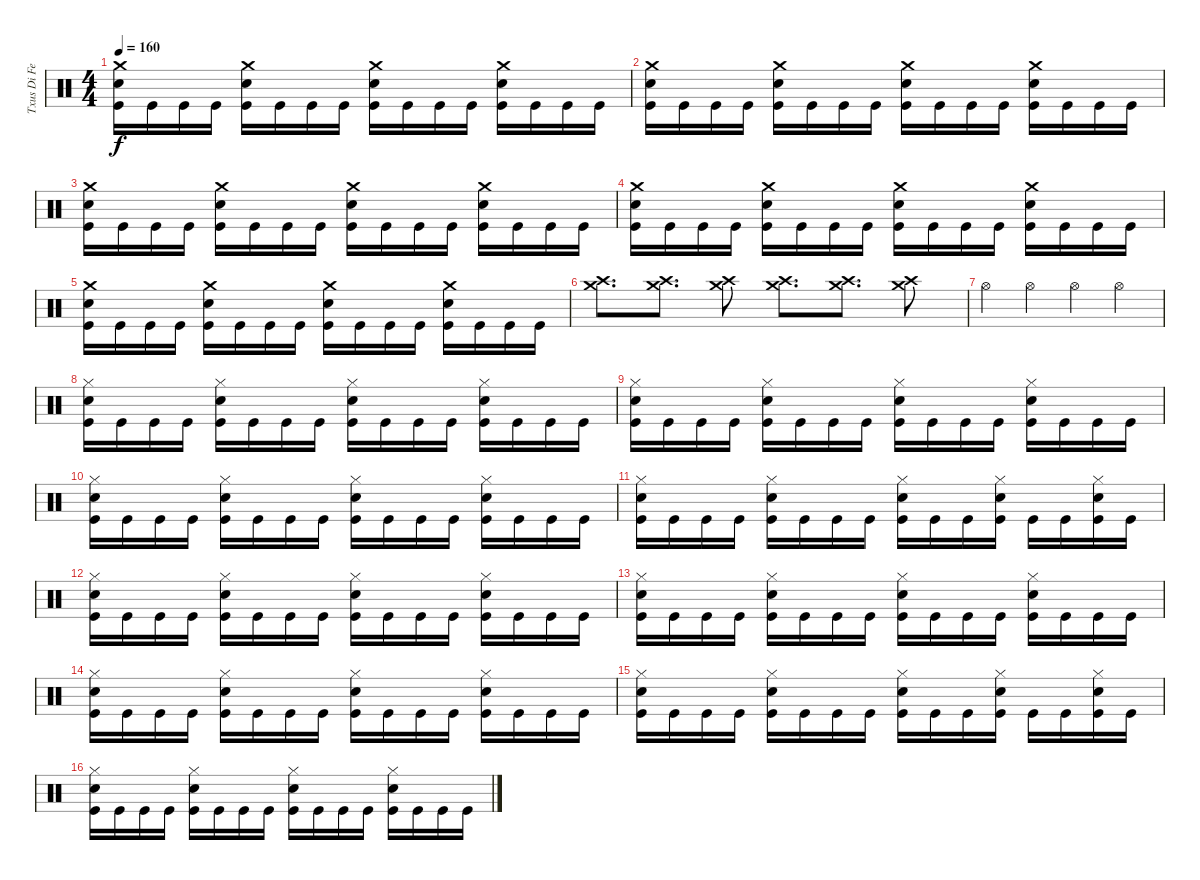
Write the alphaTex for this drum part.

\track ("Txus Di Fellatio" "Txus Di Fe") {instrument percussion}
\staff {score}
\articulation defaults
\ts (4 4)
\tempo 160
\clef neutral
\ks c
("Crash medium (hit)" "Snare (hit) 2" "Kick (hit)").16{dy f} "Kick (hit)".16 "Kick (hit)".16 "Kick (hit)".16 ("Crash medium (hit)" "Snare (hit) 2" "Kick (hit)").16 "Kick (hit)".16 "Kick (hit)".16 "Kick (hit)".16 ("Crash medium (hit)" "Snare (hit) 2" "Kick (hit)").16 "Kick (hit)".16 "Kick (hit)".16 "Kick (hit)".16 ("Crash medium (hit)" "Snare (hit) 2" "Kick (hit)").16 "Kick (hit)".16 "Kick (hit)".16 "Kick (hit)".16 |
("Crash medium (hit)" "Snare (hit) 2" "Kick (hit)").16 "Kick (hit)".16 "Kick (hit)".16 "Kick (hit)".16 ("Crash medium (hit)" "Snare (hit) 2" "Kick (hit)").16 "Kick (hit)".16 "Kick (hit)".16 "Kick (hit)".16 ("Crash medium (hit)" "Snare (hit) 2" "Kick (hit)").16 "Kick (hit)".16 "Kick (hit)".16 "Kick (hit)".16 ("Crash medium (hit)" "Snare (hit) 2" "Kick (hit)").16 "Kick (hit)".16 "Kick (hit)".16 "Kick (hit)".16 |
("Crash medium (hit)" "Snare (hit) 2" "Kick (hit)").16 "Kick (hit)".16 "Kick (hit)".16 "Kick (hit)".16 ("Crash medium (hit)" "Snare (hit) 2" "Kick (hit)").16 "Kick (hit)".16 "Kick (hit)".16 "Kick (hit)".16 ("Crash medium (hit)" "Snare (hit) 2" "Kick (hit)").16 "Kick (hit)".16 "Kick (hit)".16 "Kick (hit)".16 ("Crash medium (hit)" "Snare (hit) 2" "Kick (hit)").16 "Kick (hit)".16 "Kick (hit)".16 "Kick (hit)".16 |
("Crash medium (hit)" "Snare (hit) 2" "Kick (hit)").16 "Kick (hit)".16 "Kick (hit)".16 "Kick (hit)".16 ("Crash medium (hit)" "Snare (hit) 2" "Kick (hit)").16 "Kick (hit)".16 "Kick (hit)".16 "Kick (hit)".16 ("Crash medium (hit)" "Snare (hit) 2" "Kick (hit)").16 "Kick (hit)".16 "Kick (hit)".16 "Kick (hit)".16 ("Crash medium (hit)" "Snare (hit) 2" "Kick (hit)").16 "Kick (hit)".16 "Kick (hit)".16 "Kick (hit)".16 |
("Crash medium (hit)" "Snare (hit) 2" "Kick (hit)").16 "Kick (hit)".16 "Kick (hit)".16 "Kick (hit)".16 ("Crash medium (hit)" "Snare (hit) 2" "Kick (hit)").16 "Kick (hit)".16 "Kick (hit)".16 "Kick (hit)".16 ("Crash medium (hit)" "Snare (hit) 2" "Kick (hit)").16 "Kick (hit)".16 "Kick (hit)".16 "Kick (hit)".16 ("Crash medium (hit)" "Snare (hit) 2" "Kick (hit)").16 "Kick (hit)".16 "Kick (hit)".16 "Kick (hit)".16 |
("Crash medium (hit)" "Crash high (hit)").8{d} ("Crash medium (hit)" "Crash high (hit)").8{d} ("Crash medium (hit)" "Crash high (hit)").8 ("Crash medium (hit)" "Crash high (hit)").8{d} ("Crash medium (hit)" "Crash high (hit)").8{d} ("Crash medium (hit)" "Crash high (hit)").8 |
"Hi-Hat (open)".4 "Hi-Hat (open)".4 "Hi-Hat (open)".4 "Hi-Hat (open)".4 |
("Hi-Hat (closed)" "Snare (hit) 2" "Kick (hit)").16 "Kick (hit)".16 "Kick (hit)".16 "Kick (hit)".16 ("Hi-Hat (closed)" "Snare (hit) 2" "Kick (hit)").16 "Kick (hit)".16 "Kick (hit)".16 "Kick (hit)".16 ("Hi-Hat (closed)" "Snare (hit) 2" "Kick (hit)").16 "Kick (hit)".16 "Kick (hit)".16 "Kick (hit)".16 ("Hi-Hat (closed)" "Snare (hit) 2" "Kick (hit)").16 "Kick (hit)".16 "Kick (hit)".16 "Kick (hit)".16 |
("Hi-Hat (closed)" "Snare (hit) 2" "Kick (hit)").16 "Kick (hit)".16 "Kick (hit)".16 "Kick (hit)".16 ("Hi-Hat (closed)" "Snare (hit) 2" "Kick (hit)").16 "Kick (hit)".16 "Kick (hit)".16 "Kick (hit)".16 ("Hi-Hat (closed)" "Snare (hit) 2" "Kick (hit)").16 "Kick (hit)".16 "Kick (hit)".16 "Kick (hit)".16 ("Hi-Hat (closed)" "Snare (hit) 2" "Kick (hit)").16 "Kick (hit)".16 "Kick (hit)".16 "Kick (hit)".16 |
("Hi-Hat (closed)" "Snare (hit) 2" "Kick (hit)").16 "Kick (hit)".16 "Kick (hit)".16 "Kick (hit)".16 ("Hi-Hat (closed)" "Snare (hit) 2" "Kick (hit)").16 "Kick (hit)".16 "Kick (hit)".16 "Kick (hit)".16 ("Hi-Hat (closed)" "Snare (hit) 2" "Kick (hit)").16 "Kick (hit)".16 "Kick (hit)".16 "Kick (hit)".16 ("Hi-Hat (closed)" "Snare (hit) 2" "Kick (hit)").16 "Kick (hit)".16 "Kick (hit)".16 "Kick (hit)".16 |
("Hi-Hat (closed)" "Snare (hit) 2" "Kick (hit)").16 "Kick (hit)".16 "Kick (hit)".16 "Kick (hit)".16 ("Hi-Hat (closed)" "Snare (hit) 2" "Kick (hit)").16 "Kick (hit)".16 "Kick (hit)".16 "Kick (hit)".16 ("Hi-Hat (closed)" "Snare (hit) 2" "Kick (hit)").16 "Kick (hit)".16 "Kick (hit)".16 ("Hi-Hat (closed)" "Snare (hit) 2" "Kick (hit)").16 "Kick (hit)".16 "Kick (hit)".16 ("Hi-Hat (closed)" "Snare (hit) 2" "Kick (hit)").16 "Kick (hit)".16 |
("Hi-Hat (closed)" "Snare (hit) 2" "Kick (hit)").16 "Kick (hit)".16 "Kick (hit)".16 "Kick (hit)".16 ("Hi-Hat (closed)" "Snare (hit) 2" "Kick (hit)").16 "Kick (hit)".16 "Kick (hit)".16 "Kick (hit)".16 ("Hi-Hat (closed)" "Snare (hit) 2" "Kick (hit)").16 "Kick (hit)".16 "Kick (hit)".16 "Kick (hit)".16 ("Hi-Hat (closed)" "Snare (hit) 2" "Kick (hit)").16 "Kick (hit)".16 "Kick (hit)".16 "Kick (hit)".16 |
("Hi-Hat (closed)" "Snare (hit) 2" "Kick (hit)").16 "Kick (hit)".16 "Kick (hit)".16 "Kick (hit)".16 ("Hi-Hat (closed)" "Snare (hit) 2" "Kick (hit)").16 "Kick (hit)".16 "Kick (hit)".16 "Kick (hit)".16 ("Hi-Hat (closed)" "Snare (hit) 2" "Kick (hit)").16 "Kick (hit)".16 "Kick (hit)".16 "Kick (hit)".16 ("Hi-Hat (closed)" "Snare (hit) 2" "Kick (hit)").16 "Kick (hit)".16 "Kick (hit)".16 "Kick (hit)".16 |
("Hi-Hat (closed)" "Snare (hit) 2" "Kick (hit)").16 "Kick (hit)".16 "Kick (hit)".16 "Kick (hit)".16 ("Hi-Hat (closed)" "Snare (hit) 2" "Kick (hit)").16 "Kick (hit)".16 "Kick (hit)".16 "Kick (hit)".16 ("Hi-Hat (closed)" "Snare (hit) 2" "Kick (hit)").16 "Kick (hit)".16 "Kick (hit)".16 "Kick (hit)".16 ("Hi-Hat (closed)" "Snare (hit) 2" "Kick (hit)").16 "Kick (hit)".16 "Kick (hit)".16 "Kick (hit)".16 |
("Hi-Hat (closed)" "Snare (hit) 2" "Kick (hit)").16 "Kick (hit)".16 "Kick (hit)".16 "Kick (hit)".16 ("Hi-Hat (closed)" "Snare (hit) 2" "Kick (hit)").16 "Kick (hit)".16 "Kick (hit)".16 "Kick (hit)".16 ("Hi-Hat (closed)" "Snare (hit) 2" "Kick (hit)").16 "Kick (hit)".16 "Kick (hit)".16 ("Hi-Hat (closed)" "Snare (hit) 2" "Kick (hit)").16 "Kick (hit)".16 "Kick (hit)".16 ("Hi-Hat (closed)" "Snare (hit) 2" "Kick (hit)").16 "Kick (hit)".16 |
("Hi-Hat (closed)" "Snare (hit) 2" "Kick (hit)").16 "Kick (hit)".16 "Kick (hit)".16 "Kick (hit)".16 ("Hi-Hat (closed)" "Snare (hit) 2" "Kick (hit)").16 "Kick (hit)".16 "Kick (hit)".16 "Kick (hit)".16 ("Hi-Hat (closed)" "Snare (hit) 2" "Kick (hit)").16 "Kick (hit)".16 "Kick (hit)".16 "Kick (hit)".16 ("Hi-Hat (closed)" "Snare (hit) 2" "Kick (hit)").16 "Kick (hit)".16 "Kick (hit)".16 "Kick (hit)".16
